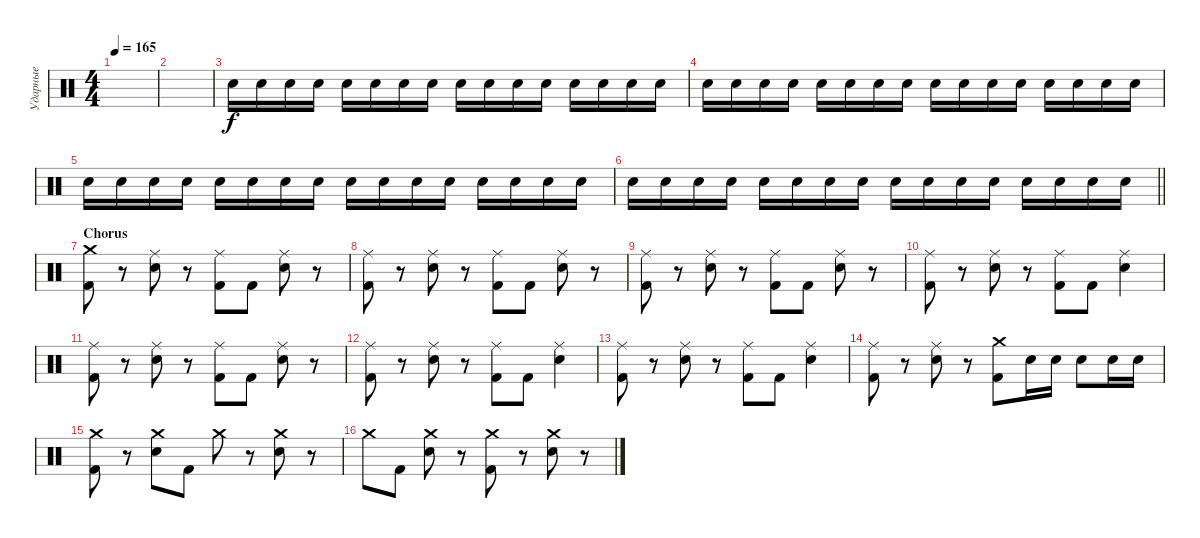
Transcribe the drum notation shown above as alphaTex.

\track ("Ударные" "Ударные") {instrument percussion}
\staff {score}
\articulation defaults
\ts (4 4)
\tempo 165
\clef neutral
\ks c
|
|
"Electric Snare (hit)".16{volume 5} "Electric Snare (hit)".16 "Electric Snare (hit)".16{volume 13} "Electric Snare (hit)".16 "Electric Snare (hit)".16 "Electric Snare (hit)".16 "Electric Snare (hit)".16 "Electric Snare (hit)".16 "Electric Snare (hit)".16 "Electric Snare (hit)".16 "Electric Snare (hit)".16 "Electric Snare (hit)".16 "Electric Snare (hit)".16 "Electric Snare (hit)".16 "Electric Snare (hit)".16 "Electric Snare (hit)".16 |
"Electric Snare (hit)".16 "Electric Snare (hit)".16 "Electric Snare (hit)".16 "Electric Snare (hit)".16 "Electric Snare (hit)".16 "Electric Snare (hit)".16 "Electric Snare (hit)".16 "Electric Snare (hit)".16 "Electric Snare (hit)".16 "Electric Snare (hit)".16 "Electric Snare (hit)".16 "Electric Snare (hit)".16 "Electric Snare (hit)".16 "Electric Snare (hit)".16 "Electric Snare (hit)".16 "Electric Snare (hit)".16 |
"Electric Snare (hit)".16{volume 16} "Electric Snare (hit)".16 "Electric Snare (hit)".16 "Electric Snare (hit)".16 "Electric Snare (hit)".16 "Electric Snare (hit)".16 "Electric Snare (hit)".16 "Electric Snare (hit)".16 "Electric Snare (hit)".16 "Electric Snare (hit)".16 "Electric Snare (hit)".16 "Electric Snare (hit)".16 "Electric Snare (hit)".16 "Electric Snare (hit)".16 "Electric Snare (hit)".16 "Electric Snare (hit)".16 |
\barLineRight lightlight "Electric Snare (hit)".16 "Electric Snare (hit)".16 "Electric Snare (hit)".16 "Electric Snare (hit)".16 "Electric Snare (hit)".16 "Electric Snare (hit)".16 "Electric Snare (hit)".16 "Electric Snare (hit)".16 "Electric Snare (hit)".16 "Electric Snare (hit)".16 "Electric Snare (hit)".16 "Electric Snare (hit)".16 "Electric Snare (hit)".16 "Electric Snare (hit)".16 "Electric Snare (hit)".16 "Electric Snare (hit)".16
|
\section ("" "Сhorus")
("Crash medium (hit)" "Kick (hit) 2").8 r.8 ("Ride (middle)" "Electric Snare (hit)").8 r.8 ("Ride (middle)" "Kick (hit) 2").8 "Kick (hit) 2".8 ("Ride (middle)" "Electric Snare (hit)").8 r.8 |
("Ride (middle)" "Kick (hit) 2").8 r.8 ("Ride (middle)" "Electric Snare (hit)").8 r.8 ("Ride (middle)" "Kick (hit) 2").8 "Kick (hit) 2".8 ("Ride (middle)" "Electric Snare (hit)").8 r.8 |
("Ride (middle)" "Kick (hit) 2").8 r.8 ("Ride (middle)" "Electric Snare (hit)").8 r.8 ("Ride (middle)" "Kick (hit) 2").8 "Kick (hit) 2".8 ("Ride (middle)" "Electric Snare (hit)").8 r.8 |
("Ride (middle)" "Kick (hit) 2").8 r.8 ("Ride (middle)" "Electric Snare (hit)").8 r.8 ("Ride (middle)" "Kick (hit) 2").8 "Kick (hit) 2".8 ("Ride (middle)" "Electric Snare (hit)").4 |
("Ride (middle)" "Kick (hit) 2").8 r.8 ("Ride (middle)" "Electric Snare (hit)").8 r.8 ("Ride (middle)" "Kick (hit) 2").8 "Kick (hit) 2".8 ("Ride (middle)" "Electric Snare (hit)").8 r.8 |
("Ride (middle)" "Kick (hit) 2").8 r.8 ("Ride (middle)" "Electric Snare (hit)").8 r.8 ("Ride (middle)" "Kick (hit) 2").8 "Kick (hit) 2".8 ("Ride (middle)" "Electric Snare (hit)").4 |
("Ride (middle)" "Kick (hit) 2").8 r.8 ("Ride (middle)" "Electric Snare (hit)").8 r.8 ("Ride (middle)" "Kick (hit) 2").8 "Kick (hit) 2".8 ("Ride (middle)" "Electric Snare (hit)").4 |
("Ride (middle)" "Kick (hit) 2").8 r.8 ("Ride (middle)" "Electric Snare (hit)").8 r.8 ("Crash medium (hit)" "Kick (hit) 2").8 "Electric Snare (hit)".16 "Electric Snare (hit)".16 "Electric Snare (hit)".8 "Electric Snare (hit)".16 "Electric Snare (hit)".16 |
("Crash medium (hit)" "Kick (hit) 2").8 r.8 ("Crash medium (hit)" "Electric Snare (hit)").8 "Kick (hit) 2".8 "Crash medium (hit)".8 r.8 ("Crash medium (hit)" "Electric Snare (hit)").8 r.8 |
"Crash medium (hit)".8 "Kick (hit) 2".8 ("Crash medium (hit)" "Electric Snare (hit)").8 r.8 ("Crash medium (hit)" "Kick (hit) 2").8 r.8 ("Crash medium (hit)" "Electric Snare (hit)").8 r.8
